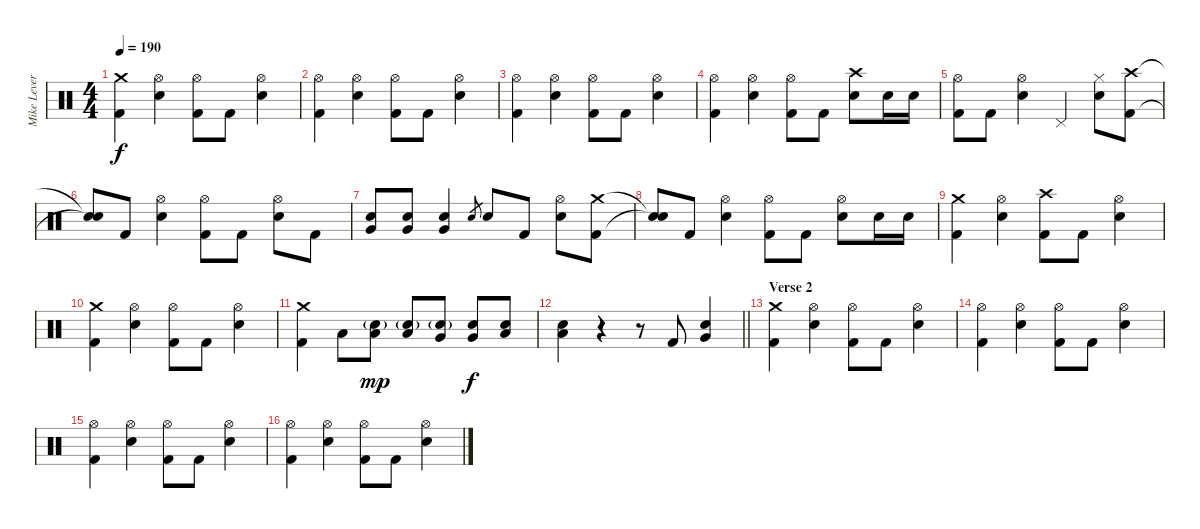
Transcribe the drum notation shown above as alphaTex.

\track ("Mike Leverence - Drums" "Mike Lever") {instrument percussion}
\staff {score}
\articulation defaults
\ts (4 4)
\tempo 190
\clef neutral
\ks c
("Crash medium (hit)" "Kick (hit) 2").4{dy f} ("Hi-Hat (open)" "Electric Snare (hit)").4 ("Hi-Hat (open)" "Kick (hit) 2").8 "Kick (hit) 2".8 ("Hi-Hat (open)" "Electric Snare (hit)").4 |
("Hi-Hat (open)" "Kick (hit) 2").4 ("Hi-Hat (open)" "Electric Snare (hit)").4 ("Hi-Hat (open)" "Kick (hit) 2").8 "Kick (hit) 2".8 ("Hi-Hat (open)" "Electric Snare (hit)").4 |
("Hi-Hat (open)" "Kick (hit) 2").4 ("Hi-Hat (open)" "Electric Snare (hit)").4 ("Hi-Hat (open)" "Kick (hit) 2").8 "Kick (hit) 2".8 ("Hi-Hat (open)" "Electric Snare (hit)").4 |
("Hi-Hat (open)" "Kick (hit) 2").4 ("Hi-Hat (open)" "Electric Snare (hit)").4 ("Hi-Hat (open)" "Kick (hit) 2").8 "Kick (hit) 2".8 ("Crash high (hit)" "Electric Snare (hit)").8 "Electric Snare (hit)".16 "Electric Snare (hit)".16 |
("Hi-Hat (open)" "Kick (hit) 2").8 "Kick (hit) 2".8 ("Hi-Hat (open)" "Electric Snare (hit)").4 "Pedal Hi-Hat (hit)".4 ("Hi-Hat (closed)" "Electric Snare (hit)").8 ("Crash high (hit)" "Kick (hit) 2").8 |
("Snare (hit)"{t} "Snare (hit)"{t}).8 "Kick (hit) 2".8 ("Hi-Hat (open)" "Electric Snare (hit)").4 ("Hi-Hat (open)" "Kick (hit) 2").8 "Kick (hit) 2".8 ("Hi-Hat (open)" "Electric Snare (hit)").8 "Kick (hit) 2".8 |
("Electric Snare (hit)" "Very Low Tom (hit)").8 ("Electric Snare (hit)" "Very Low Tom (hit)").8 ("Electric Snare (hit)" "Very Low Tom (hit)").4 "Electric Snare (hit)".8{gr} "Electric Snare (hit)".8 "Kick (hit) 2".8 ("Hi-Hat (open)" "Electric Snare (hit)").8 ("Crash medium (hit)" "Kick (hit) 2").8 |
("Snare (hit)"{t} "Snare (hit)"{t}).8 "Kick (hit) 2".8 ("Hi-Hat (open)" "Electric Snare (hit)").4 ("Hi-Hat (open)" "Kick (hit) 2").8 "Kick (hit) 2".8 ("Hi-Hat (open)" "Electric Snare (hit)").8 "Electric Snare (hit)".16 "Electric Snare (hit)".16 |
("Crash medium (hit)" "Kick (hit) 2").4 ("Hi-Hat (open)" "Electric Snare (hit)").4 ("Crash high (hit)" "Kick (hit) 2").8 "Kick (hit) 2".8 ("Hi-Hat (open)" "Electric Snare (hit)").4 |
("Crash medium (hit)" "Kick (hit) 2").4 ("Hi-Hat (open)" "Electric Snare (hit)").4 ("Hi-Hat (open)" "Kick (hit) 2").8 "Kick (hit) 2".8 ("Hi-Hat (open)" "Electric Snare (hit)").4 |
("Crash medium (hit)" "Kick (hit) 2").4 "Low Floor Tom (hit)".8 ("Electric Snare (hit)"{g} "Low Floor Tom (hit)").8{dy mp} ("Electric Snare (hit)"{g} "Low Floor Tom (hit)").8 ("Electric Snare (hit)"{g} "Very Low Tom (hit)").8 ("Electric Snare (hit)" "Very Low Tom (hit)").8{dy f} ("Electric Snare (hit)" "Low Tom (hit)").8 |
\barLineRight lightlight
("Electric Snare (hit)" "Low Tom (hit)").4 r.4 r.8 "Kick (hit) 2".8 ("Very Low Tom (hit)" "Electric Snare (hit)").4 |
\section ("" "Verse 2")
("Crash medium (hit)" "Kick (hit) 2").4 ("Hi-Hat (open)" "Electric Snare (hit)").4 ("Hi-Hat (open)" "Kick (hit) 2").8 "Kick (hit) 2".8 ("Hi-Hat (open)" "Electric Snare (hit)").4 |
("Hi-Hat (open)" "Kick (hit) 2").4 ("Hi-Hat (open)" "Electric Snare (hit)").4 ("Hi-Hat (open)" "Kick (hit) 2").8 "Kick (hit) 2".8 ("Hi-Hat (open)" "Electric Snare (hit)").4 |
("Hi-Hat (open)" "Kick (hit) 2").4 ("Hi-Hat (open)" "Electric Snare (hit)").4 ("Hi-Hat (open)" "Kick (hit) 2").8 "Kick (hit) 2".8 ("Hi-Hat (open)" "Electric Snare (hit)").4 |
("Hi-Hat (open)" "Kick (hit) 2").4 ("Hi-Hat (open)" "Electric Snare (hit)").4 ("Hi-Hat (open)" "Kick (hit) 2").8 "Kick (hit) 2".8 ("Hi-Hat (open)" "Electric Snare (hit)").4
